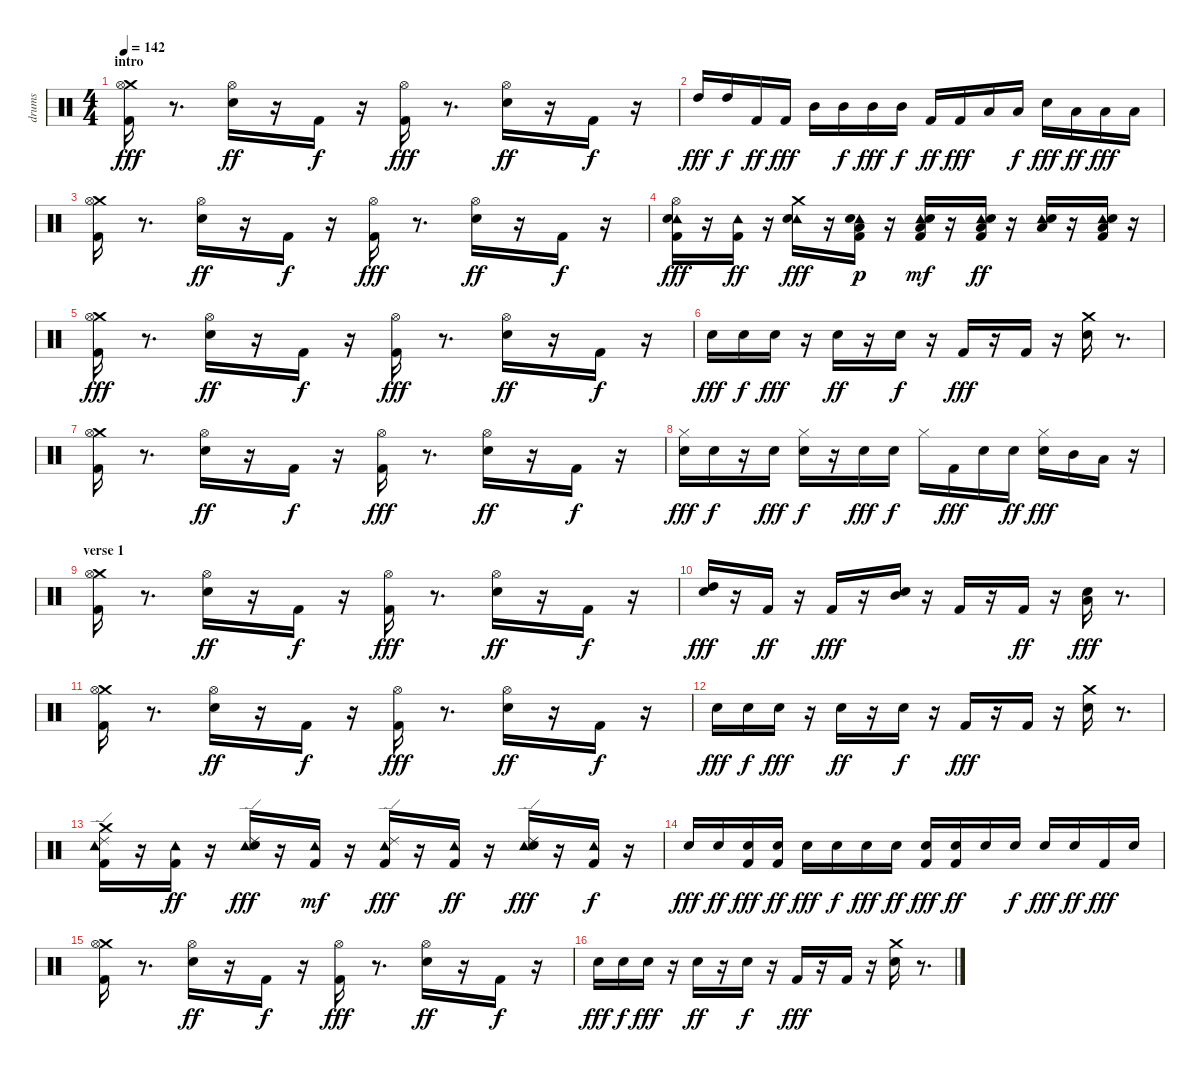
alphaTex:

\track ("drums" "drums") {instrument percussion}
\staff {score}
\articulation defaults
\ts (4 4)
\section ("" "intro")
\tempo 142
\clef neutral
\ks c
("Crash medium (hit)" "Hi-Hat (open)" "Kick (hit) 2").16{dy fff} r.8{d} ("Hi-Hat (open)" "Snare (hit) 2").16{dy ff} r.16 "Kick (hit) 2".16{dy f} r.16 ("Hi-Hat (open)" "Kick (hit) 2").16{dy fff} r.8{d} ("Hi-Hat (open)" "Snare (hit) 2").16{dy ff} r.16 "Kick (hit) 2".16{dy f} r.16 |
"High Tom (hit)".16{dy fff} "High Tom (hit)".16{dy f} "Kick (hit) 2".16{dy ff} "Kick (hit) 2".16{dy fff} "Mid Tom (hit)".16 "Mid Tom (hit)".16{dy f} "Mid Tom (hit)".16{dy fff} "Mid Tom (hit)".16{dy f} "Kick (hit) 2".16{dy ff} "Kick (hit) 2".16{dy fff} "Low Floor Tom (hit)".16 "Low Floor Tom (hit)".16{dy f} "Snare (hit) 2".16{dy fff} "Low Floor Tom (hit)".16{dy ff} "Low Floor Tom (hit)".16{dy fff} "Low Floor Tom (hit)".16 |
("Crash medium (hit)" "Hi-Hat (open)" "Kick (hit) 2").16 r.8{d} ("Hi-Hat (open)" "Snare (hit) 2").16{dy ff} r.16 "Kick (hit) 2".16{dy f} r.16 ("Hi-Hat (open)" "Kick (hit) 2").16{dy fff} r.8{d} ("Hi-Hat (open)" "Snare (hit) 2").16{dy ff} r.16 "Kick (hit) 2".16{dy f} r.16 |
("Tambourine (hit)" "Hi-Hat (open)" "Snare (hit) 2" "Kick (hit) 2").16{dy fff} r.16 ("Tambourine (hit)" "Kick (hit) 2").16{dy ff} r.16 ("Tambourine (hit)" "Crash medium (hit)" "Snare (hit) 2").16{dy fff} r.16 ("Tambourine (hit)" "Low Floor Tom (hit)" "Snare (hit) 2" "Kick (hit) 2").16{dy p} r.16 ("Tambourine (hit)" "Low Floor Tom (hit)" "Snare (hit) 2" "Kick (hit) 2").16{dy mf} r.16 ("Tambourine (hit)" "Low Floor Tom (hit)" "Snare (hit) 2" "Kick (hit) 2").16{dy ff} r.16 ("Tambourine (hit)" "Low Floor Tom (hit)" "Snare (hit) 2").16 r.16 ("Tambourine (hit)" "Low Floor Tom (hit)" "Snare (hit) 2" "Kick (hit) 2").16 r.16 |
("Crash medium (hit)" "Hi-Hat (open)" "Kick (hit) 2").16{dy fff} r.8{d} ("Hi-Hat (open)" "Snare (hit) 2").16{dy ff} r.16 "Kick (hit) 2".16{dy f} r.16 ("Hi-Hat (open)" "Kick (hit) 2").16{dy fff} r.8{d} ("Hi-Hat (open)" "Snare (hit) 2").16{dy ff} r.16 "Kick (hit) 2".16{dy f} r.16 |
"Snare (hit) 2".16{dy fff} "Snare (hit) 2".16{dy f} "Snare (hit) 2".16{dy fff} r.16 "Snare (hit) 2".16{dy ff} r.16 "Snare (hit) 2".16{dy f} r.16 "Kick (hit) 2".16{dy fff} r.16 "Kick (hit) 2".16 r.16 ("Crash medium (hit)" "Snare (hit) 2").16 r.8{d} |
("Crash medium (hit)" "Hi-Hat (open)" "Kick (hit) 2").16 r.8{d} ("Hi-Hat (open)" "Snare (hit) 2").16{dy ff} r.16 "Kick (hit) 2".16{dy f} r.16 ("Hi-Hat (open)" "Kick (hit) 2").16{dy fff} r.8{d} ("Hi-Hat (open)" "Snare (hit) 2").16{dy ff} r.16 "Kick (hit) 2".16{dy f} r.16 |
("Hi-Hat (closed)" "Snare (hit) 2").16{dy fff} "Snare (hit) 2".16{dy f} r.16 "Snare (hit) 2".16{dy fff} ("Hi-Hat (closed)" "Snare (hit) 2").16{dy f} r.16 "Snare (hit) 2".16{dy fff} "Snare (hit) 2".16{dy f} "Hi-Hat (closed)".16 "Kick (hit) 2".16{dy fff} "Snare (hit) 2".16 "Snare (hit) 2".16{dy ff} ("Hi-Hat (closed)" "Snare (hit) 2").16{dy fff} "Mid Tom (hit)".16 "Low Floor Tom (hit)".16 r.16 |
\section ("" "verse 1")
("Crash medium (hit)" "Hi-Hat (open)" "Kick (hit) 2").16 r.8{d} ("Hi-Hat (open)" "Snare (hit) 2").16{dy ff} r.16 "Kick (hit) 2".16{dy f} r.16 ("Hi-Hat (open)" "Kick (hit) 2").16{dy fff} r.8{d} ("Hi-Hat (open)" "Snare (hit) 2").16{dy ff} r.16 "Kick (hit) 2".16{dy f} r.16 |
("High Tom (hit)" "Snare (hit) 2").16{dy fff} r.16 "Kick (hit) 2".16{dy ff} r.16 "Kick (hit) 2".16{dy fff} r.16 ("Mid Tom (hit)" "Snare (hit) 2").16 r.16 "Kick (hit) 2".16 r.16 "Kick (hit) 2".16{dy ff} r.16 ("Low Floor Tom (hit)" "Snare (hit) 2").16{dy fff} r.8{d} |
("Crash medium (hit)" "Hi-Hat (open)" "Kick (hit) 2").16 r.8{d} ("Hi-Hat (open)" "Snare (hit) 2").16{dy ff} r.16 "Kick (hit) 2".16{dy f} r.16 ("Hi-Hat (open)" "Kick (hit) 2").16{dy fff} r.8{d} ("Hi-Hat (open)" "Snare (hit) 2").16{dy ff} r.16 "Kick (hit) 2".16{dy f} r.16 |
"Snare (hit) 2".16{dy fff} "Snare (hit) 2".16{dy f} "Snare (hit) 2".16{dy fff} r.16 "Snare (hit) 2".16{dy ff} r.16 "Snare (hit) 2".16{dy f} r.16 "Kick (hit) 2".16{dy fff} r.16 "Kick (hit) 2".16 r.16 ("Crash medium (hit)" "Snare (hit) 2").16 r.8{d} |
("Tambourine (hit)" "Crash medium (hit)" "Ride (edge) 2" "Kick (hit) 2").16 r.16 ("Tambourine (hit)" "Kick (hit) 2").16{dy ff} r.16 ("Tambourine (hit)" "Ride (edge) 2" "Snare (hit) 2").16{dy fff} r.16 ("Tambourine (hit)" "Kick (hit) 2").16{dy mf} r.16 ("Tambourine (hit)" "Ride (edge) 2" "Kick (hit) 2").16{dy fff} r.16 ("Tambourine (hit)" "Kick (hit) 2").16{dy ff} r.16 ("Tambourine (hit)" "Ride (edge) 2" "Snare (hit) 2").16{dy fff} r.16 ("Tambourine (hit)" "Kick (hit) 2").16{dy f} r.16 |
"Snare (hit) 2".16{dy fff} "Snare (hit) 2".16{dy ff} ("Snare (hit) 2" "Kick (hit) 2").16{dy fff} ("Snare (hit) 2" "Kick (hit) 2").16{dy ff} "Snare (hit) 2".16{dy fff} "Snare (hit) 2".16{dy f} "Snare (hit) 2".16{dy fff} "Snare (hit) 2".16{dy ff} ("Snare (hit) 2" "Kick (hit) 2").16{dy fff} ("Snare (hit) 2" "Kick (hit) 2").16{dy ff} "Snare (hit) 2".16 "Snare (hit) 2".16{dy f} "Snare (hit) 2".16{dy fff} "Snare (hit) 2".16{dy ff} "Kick (hit) 2".16{dy fff} "Snare (hit) 2".16 |
("Crash medium (hit)" "Hi-Hat (open)" "Kick (hit) 2").16 r.8{d} ("Hi-Hat (open)" "Snare (hit) 2").16{dy ff} r.16 "Kick (hit) 2".16{dy f} r.16 ("Hi-Hat (open)" "Kick (hit) 2").16{dy fff} r.8{d} ("Hi-Hat (open)" "Snare (hit) 2").16{dy ff} r.16 "Kick (hit) 2".16{dy f} r.16 |
"Snare (hit) 2".16{dy fff} "Snare (hit) 2".16{dy f} "Snare (hit) 2".16{dy fff} r.16 "Snare (hit) 2".16{dy ff} r.16 "Snare (hit) 2".16{dy f} r.16 "Kick (hit) 2".16{dy fff} r.16 "Kick (hit) 2".16 r.16 ("Crash medium (hit)" "Snare (hit) 2").16 r.8{d}
